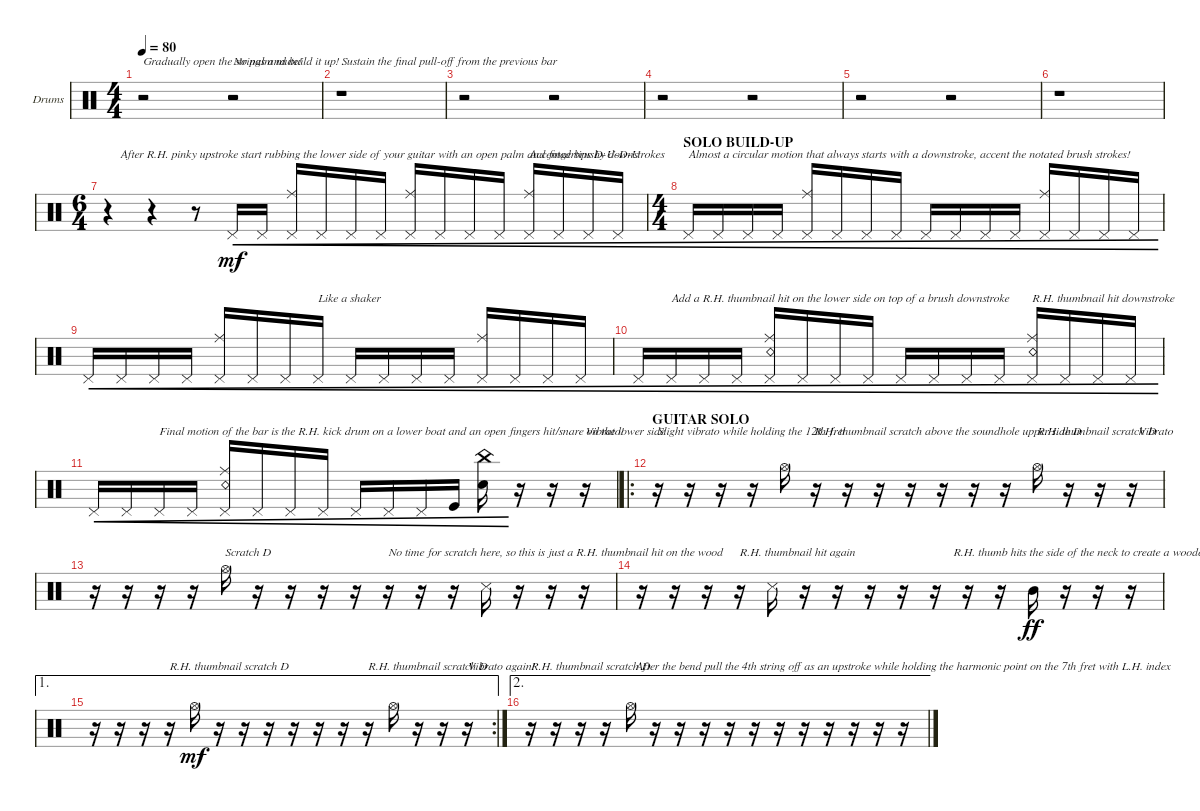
\defaultSystemsLayout 4
\bracketExtendMode groupsimilarinstruments
\firstSystemTrackNameOrientation horizontal
\otherSystemsTrackNameOrientation horizontal
\track ("Guitar Percussion" "Drums") {instrument percussion}
\staff {score}
\articulation defaults
\ts (4 4)
\tempo 80
\clef neutral
\ks c
r.2{txt "Gradually open the strings and build it up!" dy mf} r.2{txt "No palm mute!"} |
r.1{txt "Sustain the final pull-off from the previous bar"} |
r.2 r.2 |
r.2 r.2 |
r.2 r.2 |
r.1 |
\ts (6 4)
r.4{txt "    After R.H. pinky upstroke start rubbing the lower side of your guitar with an open palm and fingertips D-U-D-U"} r.4 r.8 "Pedal Hi-Hat (hit)".16{cre} "Pedal Hi-Hat (hit)".16{cre} ("Pedal Hi-Hat (hit)" "Ride (middle)").16{cre} "Pedal Hi-Hat (hit)".16{cre} "Pedal Hi-Hat (hit)".16{cre} "Pedal Hi-Hat (hit)".16{cre} ("Pedal Hi-Hat (hit)" "Ride (middle)").16{cre} "Pedal Hi-Hat (hit)".16{cre} "Pedal Hi-Hat (hit)".16{cre} "Pedal Hi-Hat (hit)".16{cre} ("Pedal Hi-Hat (hit)" "Ride (middle)").16{txt "Accented brushy downstrokes" cre} "Pedal Hi-Hat (hit)".16{cre} "Pedal Hi-Hat (hit)".16{cre} "Pedal Hi-Hat (hit)".16{cre} |
\ts (4 4)
\section ("" "SOLO BUILD-UP")
"Pedal Hi-Hat (hit)".16{txt "Almost a circular motion that always starts with a downstroke, accent the notated brush strokes!" cre} "Pedal Hi-Hat (hit)".16{cre} "Pedal Hi-Hat (hit)".16{cre} "Pedal Hi-Hat (hit)".16{cre} ("Pedal Hi-Hat (hit)" "Ride (middle)").16{cre} "Pedal Hi-Hat (hit)".16{cre} "Pedal Hi-Hat (hit)".16{cre} "Pedal Hi-Hat (hit)".16{cre} "Pedal Hi-Hat (hit)".16{cre} "Pedal Hi-Hat (hit)".16{cre} "Pedal Hi-Hat (hit)".16{cre} "Pedal Hi-Hat (hit)".16{cre} ("Pedal Hi-Hat (hit)" "Ride (middle)").16{cre} "Pedal Hi-Hat (hit)".16{cre} "Pedal Hi-Hat (hit)".16{cre} "Pedal Hi-Hat (hit)".16{cre} |
"Pedal Hi-Hat (hit)".16{cre} "Pedal Hi-Hat (hit)".16{cre} "Pedal Hi-Hat (hit)".16{cre} "Pedal Hi-Hat (hit)".16{cre} ("Pedal Hi-Hat (hit)" "Ride (middle)").16{cre} "Pedal Hi-Hat (hit)".16{cre} "Pedal Hi-Hat (hit)".16{cre} "Pedal Hi-Hat (hit)".16{txt "Like a shaker" cre} "Pedal Hi-Hat (hit)".16{cre} "Pedal Hi-Hat (hit)".16{cre} "Pedal Hi-Hat (hit)".16{cre} "Pedal Hi-Hat (hit)".16{cre} ("Pedal Hi-Hat (hit)" "Ride (middle)").16{cre} "Pedal Hi-Hat (hit)".16{cre} "Pedal Hi-Hat (hit)".16{cre} "Pedal Hi-Hat (hit)".16{cre} |
"Pedal Hi-Hat (hit)".16{cre} "Pedal Hi-Hat (hit)".16{txt "Add a R.H. thumbnail hit on the lower side on top of a brush downstroke" cre} "Pedal Hi-Hat (hit)".16{cre} "Pedal Hi-Hat (hit)".16{cre} ("Pedal Hi-Hat (hit)" "Ride (middle)" "Snare (rim shot)").16{cre} "Pedal Hi-Hat (hit)".16{cre} "Pedal Hi-Hat (hit)".16{cre} "Pedal Hi-Hat (hit)".16{cre} "Pedal Hi-Hat (hit)".16{cre} "Pedal Hi-Hat (hit)".16{cre} "Pedal Hi-Hat (hit)".16{cre} "Pedal Hi-Hat (hit)".16{cre} ("Pedal Hi-Hat (hit)" "Ride (middle)" "Snare (rim shot)").16{txt "R.H. thumbnail hit downstroke" cre} "Pedal Hi-Hat (hit)".16{cre} "Pedal Hi-Hat (hit)".16{cre} "Pedal Hi-Hat (hit)".16{cre} |
"Pedal Hi-Hat (hit)".16{cre} "Pedal Hi-Hat (hit)".16{txt "           Final motion of the bar is the R.H. kick drum on a lower boat and an open fingers hit/snare on the lower side " cre} "Pedal Hi-Hat (hit)".16{cre} "Pedal Hi-Hat (hit)".16{cre} ("Pedal Hi-Hat (hit)" "Ride (middle)" "Snare (rim shot)").16{cre} "Pedal Hi-Hat (hit)".16{cre} "Pedal Hi-Hat (hit)".16{cre} "Pedal Hi-Hat (hit)".16{cre} "Pedal Hi-Hat (hit)".16{cre} "Pedal Hi-Hat (hit)".16{cre} "Pedal Hi-Hat (hit)".16{cre} "Kick (hit)".16{cre} ("Snare (hit) 2" "China (hit)").16{cre} r.16 r.16 r.16{txt "Vibrato!"} |
\ro
\section ("" "GUITAR SOLO")
r.16{txt "Slight vibrato while holding the 12th fret"} r.16 r.16 r.16 "Hi-Hat (open)".16{txt "          R.H. thumbnail scratch above the soundhole upper side D"} r.16 r.16 r.16 r.16 r.16 r.16 r.16 "Hi-Hat (open)".16{txt "R.H. thumbnail scratch D"} r.16 r.16 r.16{txt "  Vibrato"} |
r.16 r.16 r.16 r.16 "Hi-Hat (open)".16{txt "Scratch D"} r.16 r.16 r.16 r.16 r.16{txt "No time for scratch here, so this is just a R.H. thumbnail hit on the wood"} r.16 r.16 "Snare (side stick) 3".16 r.16 r.16 r.16 |
r.16 r.16 r.16 r.16{txt "R.H. thumbnail hit again"} "Snare (side stick) 3".16 r.16 r.16 r.16 r.16 r.16{txt "      R.H. thumb hits the side of the neck to create a wooden block sound"} r.16 r.16 "Mid Tom (hit)".16{dy ff} r.16 r.16 r.16 |
\ae 1
\rc 2
r.16 r.16 r.16 r.16{txt "R.H. thumbnail scratch D"} "Hi-Hat (open)".16{dy mf} r.16 r.16 r.16 r.16 r.16 r.16 r.16{txt "R.H. thumbnail scratch D"} "Hi-Hat (open)".16 r.16 r.16 r.16{txt "Vibrato again!"} |
\ae 2
r.16{txt "R.H. thumbnail scratch D"} r.16 r.16 r.16{txt "          After the bend pull the 4th string off as an upstroke while holding the harmonic point on the 7th fret with L.H. index"} "Hi-Hat (open)".16 r.16 r.16 r.16 r.16 r.16 r.16 r.16 r.16 r.16 r.16 r.16
